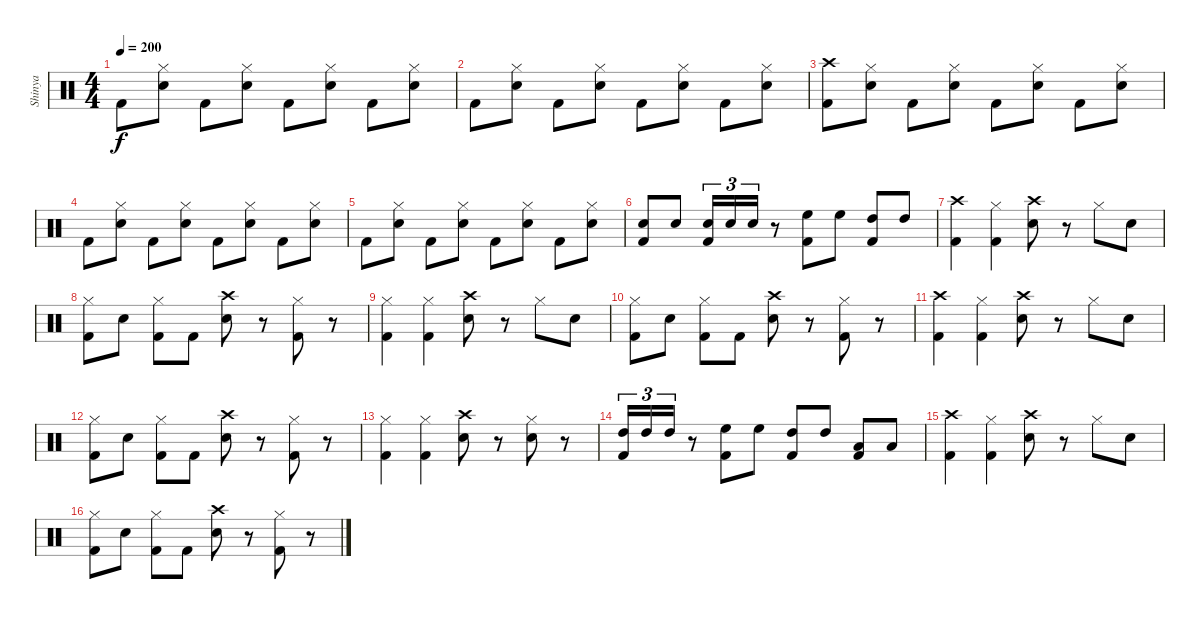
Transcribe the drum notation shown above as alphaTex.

\track ("Shinya" "Shinya") {instrument percussion}
\staff {score}
\articulation defaults
\ts (4 4)
\tempo 200
\clef neutral
\ks c "Kick (hit) 2".8{dy f}
("Hi-Hat (closed)" "Electric Snare (hit)").8 "Kick (hit) 2".8 ("Hi-Hat (closed)" "Electric Snare (hit)").8 "Kick (hit) 2".8 ("Hi-Hat (closed)" "Electric Snare (hit)").8 "Kick (hit) 2".8 ("Hi-Hat (closed)" "Electric Snare (hit)").8 |
"Kick (hit) 2".8 ("Hi-Hat (closed)" "Electric Snare (hit)").8 "Kick (hit) 2".8 ("Hi-Hat (closed)" "Electric Snare (hit)").8 "Kick (hit) 2".8 ("Hi-Hat (closed)" "Electric Snare (hit)").8 "Kick (hit) 2".8 ("Hi-Hat (closed)" "Electric Snare (hit)").8 |
("Crash high (hit)" "Kick (hit) 2").8 ("Hi-Hat (closed)" "Electric Snare (hit)").8 "Kick (hit) 2".8 ("Hi-Hat (closed)" "Electric Snare (hit)").8 "Kick (hit) 2".8 ("Hi-Hat (closed)" "Electric Snare (hit)").8 "Kick (hit) 2".8 ("Hi-Hat (closed)" "Electric Snare (hit)").8 |
"Kick (hit) 2".8 ("Hi-Hat (closed)" "Electric Snare (hit)").8 "Kick (hit) 2".8 ("Hi-Hat (closed)" "Electric Snare (hit)").8 "Kick (hit) 2".8 ("Hi-Hat (closed)" "Electric Snare (hit)").8 "Kick (hit) 2".8 ("Hi-Hat (closed)" "Electric Snare (hit)").8 |
"Kick (hit) 2".8 ("Hi-Hat (closed)" "Electric Snare (hit)").8 "Kick (hit) 2".8 ("Hi-Hat (closed)" "Electric Snare (hit)").8 "Kick (hit) 2".8 ("Hi-Hat (closed)" "Electric Snare (hit)").8 "Kick (hit) 2".8 ("Hi-Hat (closed)" "Electric Snare (hit)").8 |
("Electric Snare (hit)" "Kick (hit) 2").8 "Electric Snare (hit)".8 ("Electric Snare (hit)" "Kick (hit) 2").16{tu (3 2)} "Electric Snare (hit)".16{tu (3 2)} "Electric Snare (hit)".16{tu (3 2)} r.8 ("High Floor Tom (hit)" "Kick (hit) 2").8 "High Floor Tom (hit)".8 ("High Tom (hit)" "Kick (hit) 2").8 "High Tom (hit)".8 |
("Crash high (hit)" "Kick (hit) 2").4 ("Hi-Hat (closed)" "Kick (hit) 2").4 ("Crash high (hit)" "Electric Snare (hit)").8 r.8 "Hi-Hat (closed)".8 "Electric Snare (hit)".8 |
("Hi-Hat (closed)" "Kick (hit) 2").8 "Electric Snare (hit)".8 ("Hi-Hat (closed)" "Kick (hit) 2").8 "Kick (hit) 2".8 ("Crash high (hit)" "Electric Snare (hit)").8 r.8 ("Hi-Hat (closed)" "Kick (hit) 2").8 r.8 |
("Hi-Hat (closed)" "Kick (hit) 2").4 ("Hi-Hat (closed)" "Kick (hit) 2").4 ("Crash high (hit)" "Electric Snare (hit)").8 r.8 "Hi-Hat (closed)".8 "Electric Snare (hit)".8 |
("Hi-Hat (closed)" "Kick (hit) 2").8 "Electric Snare (hit)".8 ("Hi-Hat (closed)" "Kick (hit) 2").8 "Kick (hit) 2".8 ("Crash high (hit)" "Electric Snare (hit)").8 r.8 ("Hi-Hat (closed)" "Kick (hit) 2").8 r.8 |
("Crash high (hit)" "Kick (hit) 2").4 ("Hi-Hat (closed)" "Kick (hit) 2").4 ("Crash high (hit)" "Electric Snare (hit)").8 r.8 "Hi-Hat (closed)".8 "Electric Snare (hit)".8 |
("Hi-Hat (closed)" "Kick (hit) 2").8 "Electric Snare (hit)".8 ("Hi-Hat (closed)" "Kick (hit) 2").8 "Kick (hit) 2".8 ("Crash high (hit)" "Electric Snare (hit)").8 r.8 ("Hi-Hat (closed)" "Kick (hit) 2").8 r.8 |
("Hi-Hat (closed)" "Kick (hit) 2").4 ("Hi-Hat (closed)" "Kick (hit) 2").4 ("Crash high (hit)" "Electric Snare (hit)").8 r.8 ("Hi-Hat (closed)" "Electric Snare (hit)").8 r.8 |
("High Tom (hit)" "Kick (hit) 2").16{tu (3 2)} "High Tom (hit)".16{tu (3 2)} "High Tom (hit)".16{tu (3 2)} r.8 ("High Floor Tom (hit)" "Kick (hit) 2").8 "High Floor Tom (hit)".8 ("High Tom (hit)" "Kick (hit) 2").8 "High Tom (hit)".8 ("Low Tom (hit)" "Kick (hit) 2").8 "Low Tom (hit)".8 |
("Crash high (hit)" "Kick (hit) 2").4 ("Hi-Hat (closed)" "Kick (hit) 2").4 ("Crash high (hit)" "Electric Snare (hit)").8 r.8 "Hi-Hat (closed)".8 "Electric Snare (hit)".8 |
("Hi-Hat (closed)" "Kick (hit) 2").8 "Electric Snare (hit)".8 ("Hi-Hat (closed)" "Kick (hit) 2").8 "Kick (hit) 2".8 ("Crash high (hit)" "Electric Snare (hit)").8 r.8 ("Hi-Hat (closed)" "Kick (hit) 2").8 r.8
